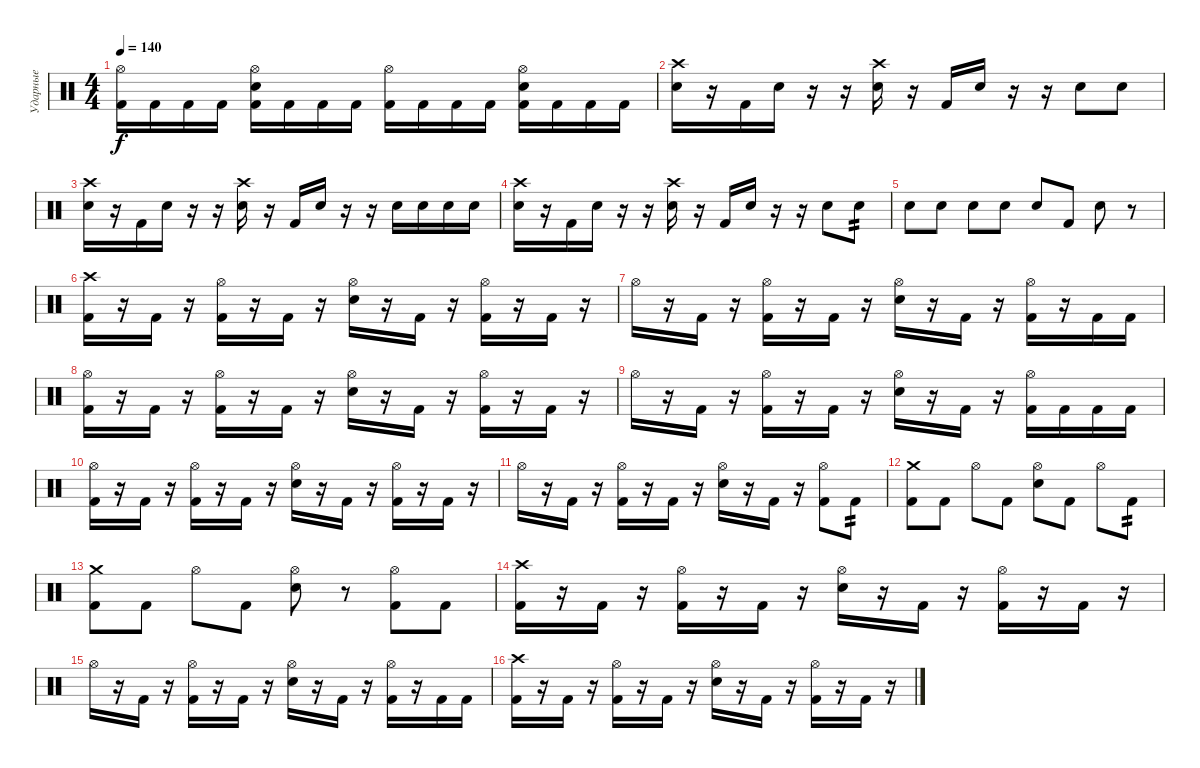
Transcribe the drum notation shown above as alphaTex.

\track ("Ударные" "Ударные") {instrument percussion}
\staff {score}
\articulation defaults
\ts (4 4)
\tempo 140
\clef neutral
\ks c
("Hi-Hat (open)" "Kick (hit) 2").16{dy f} "Kick (hit) 2".16 "Kick (hit) 2".16 "Kick (hit) 2".16 ("Hi-Hat (open)" "Kick (hit) 2" "Snare (hit) 2").16 "Kick (hit) 2".16 "Kick (hit) 2".16 "Kick (hit) 2".16 ("Hi-Hat (open)" "Kick (hit) 2").16 "Kick (hit) 2".16 "Kick (hit) 2".16 "Kick (hit) 2".16 ("Hi-Hat (open)" "Kick (hit) 2" "Snare (hit) 2").16 "Kick (hit) 2".16 "Kick (hit) 2".16 "Kick (hit) 2".16 |
("Crash high (hit)" "Snare (hit) 2").16 r.16 "Kick (hit) 2".16 "Snare (hit) 2".16 r.16 r.16 ("Crash high (hit)" "Snare (hit) 2").16 r.16 "Kick (hit) 2".16 "Snare (hit) 2".16 r.16 r.16 "Snare (hit) 2".8 "Snare (hit) 2".8 |
("Crash high (hit)" "Snare (hit) 2").16 r.16 "Kick (hit) 2".16 "Snare (hit) 2".16 r.16 r.16 ("Crash high (hit)" "Snare (hit) 2").16 r.16 "Kick (hit) 2".16 "Snare (hit) 2".16 r.16 r.16 "Snare (hit) 2".16 "Snare (hit) 2".16 "Snare (hit) 2".16 "Snare (hit) 2".16 |
("Crash high (hit)" "Snare (hit) 2").16 r.16 "Kick (hit) 2".16 "Snare (hit) 2".16 r.16 r.16 ("Crash high (hit)" "Snare (hit) 2").16 r.16 "Kick (hit) 2".16 "Snare (hit) 2".16 r.16 r.16 "Snare (hit) 2".8 "Snare (hit) 2".8{tp 2} |
"Snare (hit) 2".8 "Snare (hit) 2".8 "Snare (hit) 2".8 "Snare (hit) 2".8 "Snare (hit) 2".8 "Kick (hit) 2".8 "Snare (hit) 2".8 r.8 |
("Kick (hit) 2" "Crash high (hit)").16 r.16 "Kick (hit) 2".16 r.16 ("Kick (hit) 2" "Hi-Hat (open)").16 r.16 "Kick (hit) 2".16 r.16 ("Snare (hit) 2" "Hi-Hat (open)").16 r.16 "Kick (hit) 2".16 r.16 ("Kick (hit) 2" "Hi-Hat (open)").16 r.16 "Kick (hit) 2".16 r.16 |
"Hi-Hat (open)".16 r.16 "Kick (hit) 2".16 r.16 ("Hi-Hat (open)" "Kick (hit) 2").16 r.16 "Kick (hit) 2".16 r.16 ("Hi-Hat (open)" "Snare (hit) 2").16 r.16 "Kick (hit) 2".16 r.16 ("Hi-Hat (open)" "Kick (hit) 2").16 r.16 "Kick (hit) 2".16 "Kick (hit) 2".16 |
("Kick (hit) 2" "Hi-Hat (open)").16 r.16 "Kick (hit) 2".16 r.16 ("Kick (hit) 2" "Hi-Hat (open)").16 r.16 "Kick (hit) 2".16 r.16 ("Snare (hit) 2" "Hi-Hat (open)").16 r.16 "Kick (hit) 2".16 r.16 ("Kick (hit) 2" "Hi-Hat (open)").16 r.16 "Kick (hit) 2".16 r.16 |
"Hi-Hat (open)".16 r.16 "Kick (hit) 2".16 r.16 ("Hi-Hat (open)" "Kick (hit) 2").16 r.16 "Kick (hit) 2".16 r.16 ("Hi-Hat (open)" "Snare (hit) 2").16 r.16 "Kick (hit) 2".16 r.16 ("Hi-Hat (open)" "Kick (hit) 2").16 "Kick (hit) 2".16 "Kick (hit) 2".16 "Kick (hit) 2".16 |
("Kick (hit) 2" "Hi-Hat (open)").16 r.16 "Kick (hit) 2".16 r.16 ("Kick (hit) 2" "Hi-Hat (open)").16 r.16 "Kick (hit) 2".16 r.16 ("Snare (hit) 2" "Hi-Hat (open)").16 r.16 "Kick (hit) 2".16 r.16 ("Kick (hit) 2" "Hi-Hat (open)").16 r.16 "Kick (hit) 2".16 r.16 |
"Hi-Hat (open)".16 r.16 "Kick (hit) 2".16 r.16 ("Hi-Hat (open)" "Kick (hit) 2").16 r.16 "Kick (hit) 2".16 r.16 ("Hi-Hat (open)" "Snare (hit) 2").16 r.16 "Kick (hit) 2".16 r.16 ("Hi-Hat (open)" "Kick (hit) 2").8 "Kick (hit) 2".8{tp 2} |
("Crash medium (hit)" "Kick (hit) 2").8 "Kick (hit) 2".8 "Hi-Hat (open)".8 "Kick (hit) 2".8 ("Hi-Hat (open)" "Snare (hit) 2").8 "Kick (hit) 2".8 "Hi-Hat (open)".8 "Kick (hit) 2".8{tp 2} |
("Crash medium (hit)" "Kick (hit) 2").8 "Kick (hit) 2".8 "Hi-Hat (open)".8 "Kick (hit) 2".8 ("Hi-Hat (open)" "Snare (hit) 2").8 r.8 ("Hi-Hat (open)" "Kick (hit) 2").8 "Kick (hit) 2".8 |
("Kick (hit) 2" "Crash high (hit)").16 r.16 "Kick (hit) 2".16 r.16 ("Kick (hit) 2" "Hi-Hat (open)").16 r.16 "Kick (hit) 2".16 r.16 ("Snare (hit) 2" "Hi-Hat (open)").16 r.16 "Kick (hit) 2".16 r.16 ("Kick (hit) 2" "Hi-Hat (open)").16 r.16 "Kick (hit) 2".16 r.16 |
"Hi-Hat (open)".16 r.16 "Kick (hit) 2".16 r.16 ("Hi-Hat (open)" "Kick (hit) 2").16 r.16 "Kick (hit) 2".16 r.16 ("Hi-Hat (open)" "Snare (hit) 2").16 r.16 "Kick (hit) 2".16 r.16 ("Hi-Hat (open)" "Kick (hit) 2").16 r.16 "Kick (hit) 2".16 "Kick (hit) 2".16 |
("Kick (hit) 2" "Crash high (hit)").16 r.16 "Kick (hit) 2".16 r.16 ("Kick (hit) 2" "Hi-Hat (open)").16 r.16 "Kick (hit) 2".16 r.16 ("Snare (hit) 2" "Hi-Hat (open)").16 r.16 "Kick (hit) 2".16 r.16 ("Kick (hit) 2" "Hi-Hat (open)").16 r.16 "Kick (hit) 2".16 r.16
